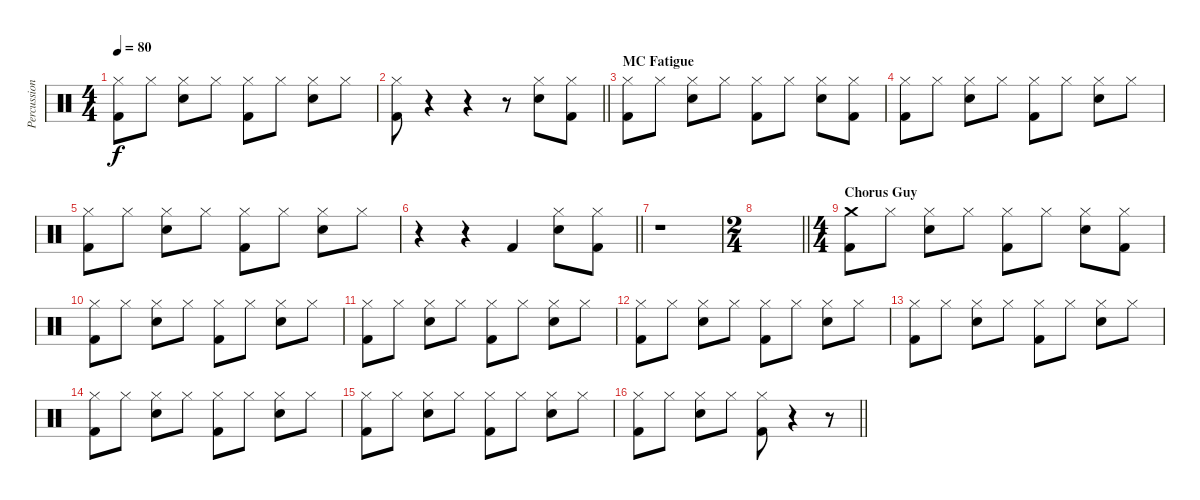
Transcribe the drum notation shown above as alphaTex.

\track ("Percussion" "Percussion") {instrument percussion}
\staff {score}
\articulation defaults
\ts (4 4)
\tempo 80
\clef neutral
\ks c
("Hi-Hat (closed)" "Kick (hit) 2").8{dy f} "Hi-Hat (closed)".8 ("Hi-Hat (closed)" "Snare (hit) 2").8 "Hi-Hat (closed)".8 ("Hi-Hat (closed)" "Kick (hit) 2").8 "Hi-Hat (closed)".8 ("Hi-Hat (closed)" "Snare (hit) 2").8 "Hi-Hat (closed)".8 |
\barLineRight lightlight
("Hi-Hat (closed)" "Kick (hit) 2").8 r.4 r.4 r.8 ("Hi-Hat (closed)" "Snare (hit) 2").8 ("Hi-Hat (closed)" "Kick (hit) 2").8 |
\section ("" "MC Fatigue")
("Hi-Hat (closed)" "Kick (hit) 2").8 "Hi-Hat (closed)".8 ("Hi-Hat (closed)" "Snare (hit) 2").8 "Hi-Hat (closed)".8 ("Hi-Hat (closed)" "Kick (hit) 2").8 "Hi-Hat (closed)".8 ("Hi-Hat (closed)" "Snare (hit) 2").8 ("Hi-Hat (closed)" "Kick (hit) 2").8 |
("Hi-Hat (closed)" "Kick (hit) 2").8 "Hi-Hat (closed)".8 ("Hi-Hat (closed)" "Snare (hit) 2").8 "Hi-Hat (closed)".8 ("Hi-Hat (closed)" "Kick (hit) 2").8 "Hi-Hat (closed)".8 ("Hi-Hat (closed)" "Snare (hit) 2").8 "Hi-Hat (closed)".8 |
("Hi-Hat (closed)" "Kick (hit) 2").8 "Hi-Hat (closed)".8 ("Hi-Hat (closed)" "Snare (hit) 2").8 "Hi-Hat (closed)".8 ("Hi-Hat (closed)" "Kick (hit) 2").8 "Hi-Hat (closed)".8 ("Hi-Hat (closed)" "Snare (hit) 2").8 "Hi-Hat (closed)".8 |
\barLineRight lightlight
r.4 r.4 "Kick (hit) 2".4 ("Hi-Hat (closed)" "Snare (hit) 2").8 ("Hi-Hat (closed)" "Kick (hit) 2").8 |
r.1 |
\ts (2 4)
\barLineRight lightlight
|
\ts (4 4)
\section ("" "Chorus Guy")
("Crash medium (hit)" "Kick (hit) 2").8 "Hi-Hat (closed)".8 ("Hi-Hat (closed)" "Snare (hit) 2").8 "Hi-Hat (closed)".8 ("Hi-Hat (closed)" "Kick (hit) 2").8 "Hi-Hat (closed)".8 ("Hi-Hat (closed)" "Snare (hit) 2").8 ("Hi-Hat (closed)" "Kick (hit) 2").8 |
("Hi-Hat (closed)" "Kick (hit) 2").8 "Hi-Hat (closed)".8 ("Hi-Hat (closed)" "Snare (hit) 2").8 "Hi-Hat (closed)".8 ("Hi-Hat (closed)" "Kick (hit) 2").8 "Hi-Hat (closed)".8 ("Hi-Hat (closed)" "Snare (hit) 2").8 "Hi-Hat (closed)".8 |
("Hi-Hat (closed)" "Kick (hit) 2").8 "Hi-Hat (closed)".8 ("Hi-Hat (closed)" "Snare (hit) 2").8 "Hi-Hat (closed)".8 ("Hi-Hat (closed)" "Kick (hit) 2").8 "Hi-Hat (closed)".8 ("Hi-Hat (closed)" "Snare (hit) 2").8 "Hi-Hat (closed)".8 |
("Hi-Hat (closed)" "Kick (hit) 2").8 "Hi-Hat (closed)".8 ("Hi-Hat (closed)" "Snare (hit) 2").8 "Hi-Hat (closed)".8 ("Hi-Hat (closed)" "Kick (hit) 2").8 "Hi-Hat (closed)".8 ("Hi-Hat (closed)" "Snare (hit) 2").8 "Hi-Hat (closed)".8 |
("Hi-Hat (closed)" "Kick (hit) 2").8 "Hi-Hat (closed)".8 ("Hi-Hat (closed)" "Snare (hit) 2").8 "Hi-Hat (closed)".8 ("Hi-Hat (closed)" "Kick (hit) 2").8 "Hi-Hat (closed)".8 ("Hi-Hat (closed)" "Snare (hit) 2").8 "Hi-Hat (closed)".8 |
("Hi-Hat (closed)" "Kick (hit) 2").8 "Hi-Hat (closed)".8 ("Hi-Hat (closed)" "Snare (hit) 2").8 "Hi-Hat (closed)".8 ("Hi-Hat (closed)" "Kick (hit) 2").8 "Hi-Hat (closed)".8 ("Hi-Hat (closed)" "Snare (hit) 2").8 "Hi-Hat (closed)".8 |
("Hi-Hat (closed)" "Kick (hit) 2").8 "Hi-Hat (closed)".8 ("Hi-Hat (closed)" "Snare (hit) 2").8 "Hi-Hat (closed)".8 ("Hi-Hat (closed)" "Kick (hit) 2").8 "Hi-Hat (closed)".8 ("Hi-Hat (closed)" "Snare (hit) 2").8 "Hi-Hat (closed)".8 |
\barLineRight lightlight
("Hi-Hat (closed)" "Kick (hit) 2").8 "Hi-Hat (closed)".8 ("Hi-Hat (closed)" "Snare (hit) 2").8 "Hi-Hat (closed)".8 ("Hi-Hat (closed)" "Kick (hit) 2").8 r.4 r.8
